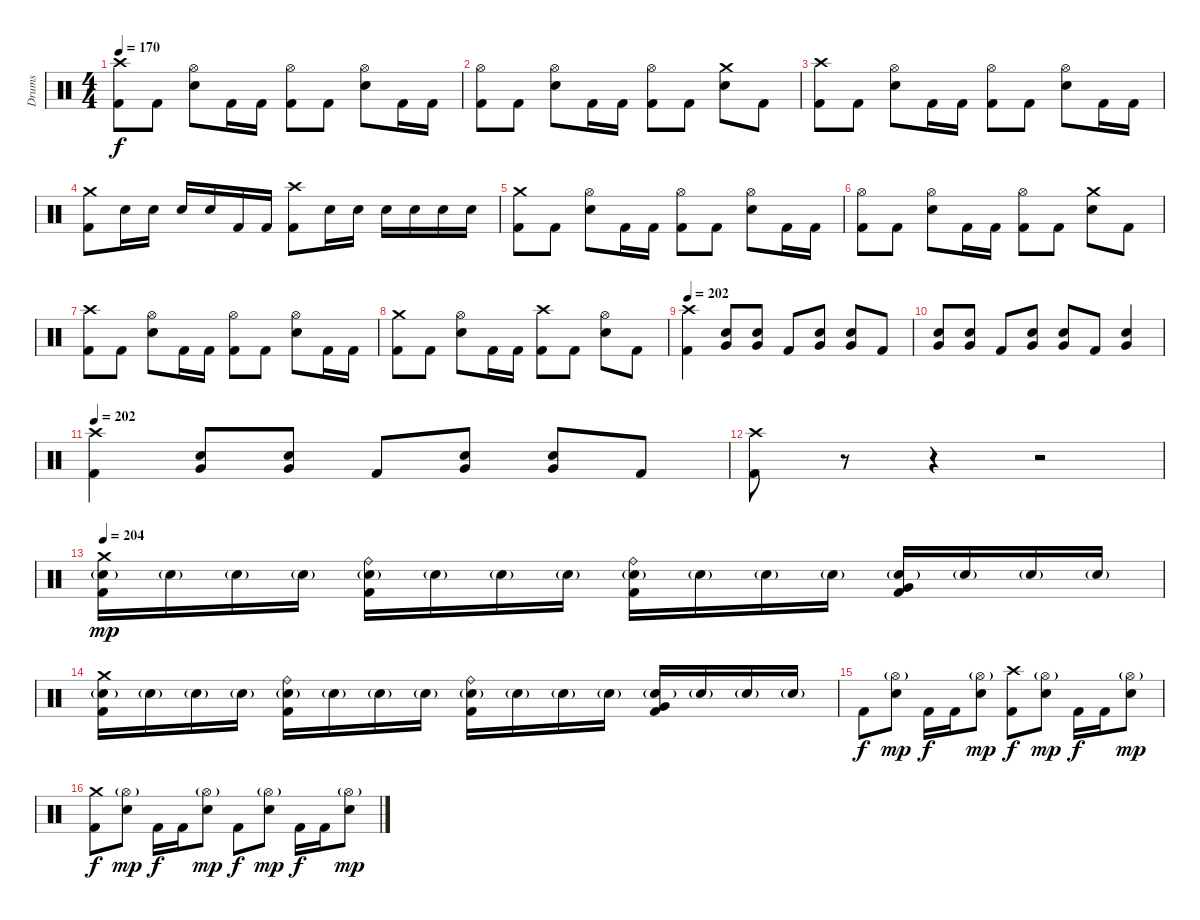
\track ("Drums" "Drums") {instrument percussion}
\staff {score}
\articulation defaults
\ts (4 4)
\tempo 170
\clef neutral
\ks c
("Crash high (hit)" "Kick (hit) 2").8{dy f} "Kick (hit) 2".8 ("Hi-Hat (open)" "Electric Snare (hit)").8 "Kick (hit) 2".16 "Kick (hit) 2".16 ("Hi-Hat (open)" "Kick (hit) 2").8 "Kick (hit) 2".8 ("Hi-Hat (open)" "Electric Snare (hit)").8 "Kick (hit) 2".16 "Kick (hit) 2".16 |
("Hi-Hat (open)" "Kick (hit) 2").8 "Kick (hit) 2".8 ("Hi-Hat (open)" "Electric Snare (hit)").8 "Kick (hit) 2".16 "Kick (hit) 2".16 ("Hi-Hat (open)" "Kick (hit) 2").8 "Kick (hit) 2".8 ("Crash medium (hit)" "Electric Snare (hit)").8 "Kick (hit) 2".8 |
("Crash high (hit)" "Kick (hit) 2").8 "Kick (hit) 2".8 ("Hi-Hat (open)" "Electric Snare (hit)").8 "Kick (hit) 2".16 "Kick (hit) 2".16 ("Hi-Hat (open)" "Kick (hit) 2").8 "Kick (hit) 2".8 ("Hi-Hat (open)" "Electric Snare (hit)").8 "Kick (hit) 2".16 "Kick (hit) 2".16 |
("Crash medium (hit)" "Kick (hit) 2").8 "Electric Snare (hit)".16 "Electric Snare (hit)".16 "Electric Snare (hit)".16 "Electric Snare (hit)".16 "Kick (hit) 2".16 "Kick (hit) 2".16 ("Crash high (hit)" "Kick (hit) 2").8 "Electric Snare (hit)".16 "Electric Snare (hit)".16 "Electric Snare (hit)".16 "Electric Snare (hit)".16 "Electric Snare (hit)".16 "Electric Snare (hit)".16 |
("Crash medium (hit)" "Kick (hit) 2").8 "Kick (hit) 2".8 ("Hi-Hat (open)" "Electric Snare (hit)").8 "Kick (hit) 2".16 "Kick (hit) 2".16 ("Hi-Hat (open)" "Kick (hit) 2").8 "Kick (hit) 2".8 ("Hi-Hat (open)" "Electric Snare (hit)").8 "Kick (hit) 2".16 "Kick (hit) 2".16 |
("Hi-Hat (open)" "Kick (hit) 2").8 "Kick (hit) 2".8 ("Hi-Hat (open)" "Electric Snare (hit)").8 "Kick (hit) 2".16 "Kick (hit) 2".16 ("Hi-Hat (open)" "Kick (hit) 2").8 "Kick (hit) 2".8 ("Crash medium (hit)" "Electric Snare (hit)").8 "Kick (hit) 2".8 |
("Crash high (hit)" "Kick (hit) 2").8 "Kick (hit) 2".8 ("Hi-Hat (open)" "Electric Snare (hit)").8 "Kick (hit) 2".16 "Kick (hit) 2".16 ("Hi-Hat (open)" "Kick (hit) 2").8 "Kick (hit) 2".8 ("Hi-Hat (open)" "Electric Snare (hit)").8 "Kick (hit) 2".16 "Kick (hit) 2".16 |
("Crash medium (hit)" "Kick (hit) 2").8 "Kick (hit) 2".8 ("Hi-Hat (open)" "Electric Snare (hit)").8 "Kick (hit) 2".16 "Kick (hit) 2".16 ("Crash high (hit)" "Kick (hit) 2").8 "Kick (hit) 2".8 ("Hi-Hat (open)" "Electric Snare (hit)").8 "Kick (hit) 2".8 |
\tempo 202
("Crash high (hit)" "Kick (hit) 2").4 ("Electric Snare (hit)" "Very Low Tom (hit)").8 ("Electric Snare (hit)" "Very Low Tom (hit)").8 "Kick (hit) 2".8 ("Electric Snare (hit)" "Very Low Tom (hit)").8 ("Electric Snare (hit)" "Very Low Tom (hit)").8 "Kick (hit) 2".8 |
("Electric Snare (hit)" "Very Low Tom (hit)").8 ("Electric Snare (hit)" "Very Low Tom (hit)").8 "Kick (hit) 2".8 ("Electric Snare (hit)" "Very Low Tom (hit)").8 ("Electric Snare (hit)" "Very Low Tom (hit)").8 "Kick (hit) 2".8 ("Electric Snare (hit)" "Very Low Tom (hit)").4 |
\tempo 202
("Crash high (hit)" "Kick (hit) 2").4 ("Electric Snare (hit)" "Very Low Tom (hit)").8 ("Electric Snare (hit)" "Very Low Tom (hit)").8 "Kick (hit) 2".8 ("Electric Snare (hit)" "Very Low Tom (hit)").8 ("Electric Snare (hit)" "Very Low Tom (hit)").8 "Kick (hit) 2".8 |
("Crash high (hit)" "Kick (hit) 2").8 r.8{volume 0} r.4 r.2 |
\tempo 204
("Crash medium (hit)" "Electric Snare (hit)"{g} "Kick (hit) 2").16{dy mp volume 13} "Electric Snare (hit)"{g}.16 "Electric Snare (hit)"{g}.16 "Electric Snare (hit)"{g}.16 ("Ride (bell)" "Electric Snare (hit)"{g} "Kick (hit) 2").16 "Electric Snare (hit)"{g}.16 "Electric Snare (hit)"{g}.16 "Electric Snare (hit)"{g}.16 ("Ride (bell)" "Electric Snare (hit)"{g} "Kick (hit) 2").16 "Electric Snare (hit)"{g}.16 "Electric Snare (hit)"{g}.16 "Electric Snare (hit)"{g}.16 ("Very Low Tom (hit)" "Electric Snare (hit)"{g} "Kick (hit) 2").16 "Electric Snare (hit)"{g}.16 "Electric Snare (hit)"{g}.16 "Electric Snare (hit)"{g}.16 |
("Crash medium (hit)" "Electric Snare (hit)"{g} "Kick (hit) 2").16 "Electric Snare (hit)"{g}.16 "Electric Snare (hit)"{g}.16 "Electric Snare (hit)"{g}.16 ("Ride (bell)" "Electric Snare (hit)"{g} "Kick (hit) 2").16 "Electric Snare (hit)"{g}.16 "Electric Snare (hit)"{g}.16 "Electric Snare (hit)"{g}.16 ("Ride (bell)" "Electric Snare (hit)"{g} "Kick (hit) 2").16 "Electric Snare (hit)"{g}.16 "Electric Snare (hit)"{g}.16 "Electric Snare (hit)"{g}.16 ("Very Low Tom (hit)" "Electric Snare (hit)"{g} "Kick (hit) 2").16 "Electric Snare (hit)"{g}.16 "Electric Snare (hit)"{g}.16 "Electric Snare (hit)"{g}.16 |
"Kick (hit) 2".8{dy f} ("Hi-Hat (open)"{g} "Electric Snare (hit)").8{dy mp} "Kick (hit) 2".16{dy f} "Kick (hit) 2".16 ("Hi-Hat (open)"{g} "Electric Snare (hit)").8{dy mp} ("Crash high (hit)" "Kick (hit) 2").8{dy f} ("Hi-Hat (open)"{g} "Electric Snare (hit)").8{dy mp} "Kick (hit) 2".16{dy f} "Kick (hit) 2".16 ("Hi-Hat (open)"{g} "Electric Snare (hit)").8{dy mp} |
("Crash medium (hit)" "Kick (hit) 2").8{dy f} ("Hi-Hat (open)"{g} "Electric Snare (hit)").8{dy mp} "Kick (hit) 2".16{dy f} "Kick (hit) 2".16 ("Hi-Hat (open)"{g} "Electric Snare (hit)").8{dy mp} "Kick (hit) 2".8{dy f} ("Hi-Hat (open)"{g} "Electric Snare (hit)").8{dy mp} "Kick (hit) 2".16{dy f} "Kick (hit) 2".16 ("Hi-Hat (open)"{g} "Electric Snare (hit)").8{dy mp}
